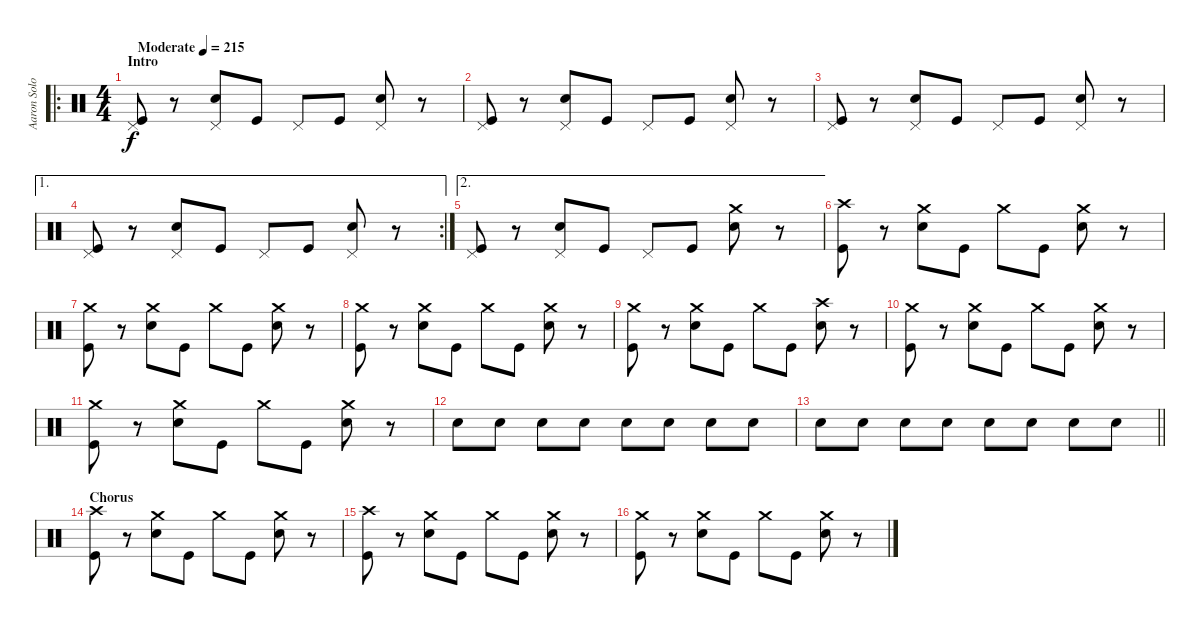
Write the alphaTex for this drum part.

\track ("Aaron Solowoniuk" "Aaron Solo") {instrument percussion}
\staff {score}
\articulation defaults
\ro
\ts (4 4)
\section ("" "Intro")
\tempo (215 "Moderate")
\clef neutral
\ks c
("Pedal Hi-Hat (hit)" "Kick (hit)").8{dy f} r.8 ("Pedal Hi-Hat (hit)" "Electric Snare (hit)").8 "Kick (hit)".8 "Pedal Hi-Hat (hit)".8 "Kick (hit)".8 ("Pedal Hi-Hat (hit)" "Electric Snare (hit)").8 r.8 |
("Pedal Hi-Hat (hit)" "Kick (hit)").8 r.8 ("Pedal Hi-Hat (hit)" "Electric Snare (hit)").8 "Kick (hit)".8 "Pedal Hi-Hat (hit)".8 "Kick (hit)".8 ("Pedal Hi-Hat (hit)" "Electric Snare (hit)").8 r.8 |
("Pedal Hi-Hat (hit)" "Kick (hit)").8 r.8 ("Pedal Hi-Hat (hit)" "Electric Snare (hit)").8 "Kick (hit)".8 "Pedal Hi-Hat (hit)".8 "Kick (hit)".8 ("Pedal Hi-Hat (hit)" "Electric Snare (hit)").8 r.8 |
\ae 1
\rc 2
("Pedal Hi-Hat (hit)" "Kick (hit)").8 r.8 ("Pedal Hi-Hat (hit)" "Electric Snare (hit)").8 "Kick (hit)".8 "Pedal Hi-Hat (hit)".8 "Kick (hit)".8 ("Pedal Hi-Hat (hit)" "Electric Snare (hit)").8 r.8 |
\ae 2
("Pedal Hi-Hat (hit)" "Kick (hit)").8 r.8 ("Pedal Hi-Hat (hit)" "Electric Snare (hit)").8 "Kick (hit)".8 "Pedal Hi-Hat (hit)".8 "Kick (hit)".8 ("Crash medium (hit)" "Electric Snare (hit)").8 r.8 |
("Crash high (hit)" "Kick (hit)").8 r.8 ("Crash medium (hit)" "Electric Snare (hit)").8 "Kick (hit)".8 "Crash medium (hit)".8 "Kick (hit)".8 ("Crash medium (hit)" "Electric Snare (hit)").8 r.8 |
("Crash medium (hit)" "Kick (hit)").8 r.8 ("Crash medium (hit)" "Electric Snare (hit)").8 "Kick (hit)".8 "Crash medium (hit)".8 "Kick (hit)".8 ("Crash medium (hit)" "Electric Snare (hit)").8 r.8 |
("Crash medium (hit)" "Kick (hit)").8 r.8 ("Crash medium (hit)" "Electric Snare (hit)").8 "Kick (hit)".8 "Crash medium (hit)".8 "Kick (hit)".8 ("Crash medium (hit)" "Electric Snare (hit)").8 r.8 |
("Crash medium (hit)" "Kick (hit)").8 r.8 ("Crash medium (hit)" "Electric Snare (hit)").8 "Kick (hit)".8 "Crash medium (hit)".8 "Kick (hit)".8 ("Crash high (hit)" "Electric Snare (hit)").8 r.8 |
("Crash medium (hit)" "Kick (hit)").8 r.8 ("Crash medium (hit)" "Electric Snare (hit)").8 "Kick (hit)".8 "Crash medium (hit)".8 "Kick (hit)".8 ("Crash medium (hit)" "Electric Snare (hit)").8 r.8 |
("Crash medium (hit)" "Kick (hit)").8 r.8 ("Crash medium (hit)" "Electric Snare (hit)").8 "Kick (hit)".8 "Crash medium (hit)".8 "Kick (hit)".8 ("Crash medium (hit)" "Electric Snare (hit)").8 r.8 |
"Electric Snare (hit)".8 "Electric Snare (hit)".8 "Electric Snare (hit)".8 "Electric Snare (hit)".8 "Electric Snare (hit)".8 "Electric Snare (hit)".8 "Electric Snare (hit)".8 "Electric Snare (hit)".8 |
\barLineRight lightlight "Electric Snare (hit)".8 "Electric Snare (hit)".8 "Electric Snare (hit)".8 "Electric Snare (hit)".8 "Electric Snare (hit)".8 "Electric Snare (hit)".8 "Electric Snare (hit)".8 "Electric Snare (hit)".8
|
\section ("" "Chorus")
("Crash high (hit)" "Kick (hit)").8 r.8 ("Crash medium (hit)" "Electric Snare (hit)").8 "Kick (hit)".8 "Crash medium (hit)".8 "Kick (hit)".8 ("Crash medium (hit)" "Electric Snare (hit)").8 r.8 |
("Crash high (hit)" "Kick (hit)").8 r.8 ("Crash medium (hit)" "Electric Snare (hit)").8 "Kick (hit)".8 "Crash medium (hit)".8 "Kick (hit)".8 ("Crash medium (hit)" "Electric Snare (hit)").8 r.8 |
("Crash medium (hit)" "Kick (hit)").8 r.8 ("Crash medium (hit)" "Electric Snare (hit)").8 "Kick (hit)".8 "Crash medium (hit)".8 "Kick (hit)".8 ("Crash medium (hit)" "Electric Snare (hit)").8 r.8
